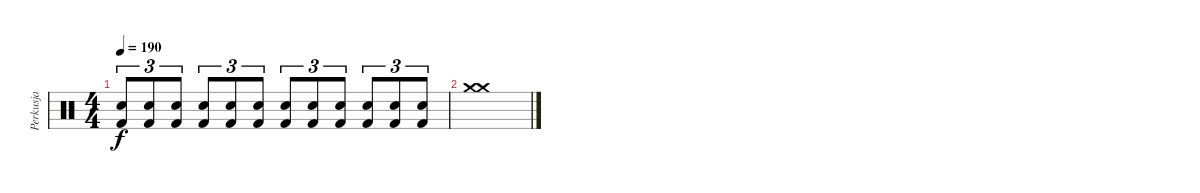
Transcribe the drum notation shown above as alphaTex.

\track ("Perkusja" "Perkusja") {instrument percussion}
\staff {score}
\articulation defaults
\ts (4 4)
\tempo 190
\clef neutral
\ks c
("Electric Snare (hit)" "Kick (hit) 2").8{tu (3 2) dy f volume 7 balance 16} ("Electric Snare (hit)" "Kick (hit) 2").8{tu (3 2) balance 14} ("Electric Snare (hit)" "Kick (hit) 2").8{tu (3 2) balance 12} ("Electric Snare (hit)" "Kick (hit) 2").8{tu (3 2) balance 11} ("Electric Snare (hit)" "Kick (hit) 2").8{tu (3 2)} ("Electric Snare (hit)" "Kick (hit) 2").8{tu (3 2)} ("Electric Snare (hit)" "Kick (hit) 2").8{tu (3 2)} ("Electric Snare (hit)" "Kick (hit) 2").8{tu (3 2) balance 7} ("Electric Snare (hit)" "Kick (hit) 2").8{tu (3 2) balance 4} ("Electric Snare (hit)" "Kick (hit) 2").8{tu (3 2) balance 3} ("Electric Snare (hit)" "Kick (hit) 2").8{tu (3 2) balance 1} ("Electric Snare (hit)" "Kick (hit) 2").8{tu (3 2) balance 0} |
("Crash medium (hit)" "Crash medium (hit)").1{volume 14}
